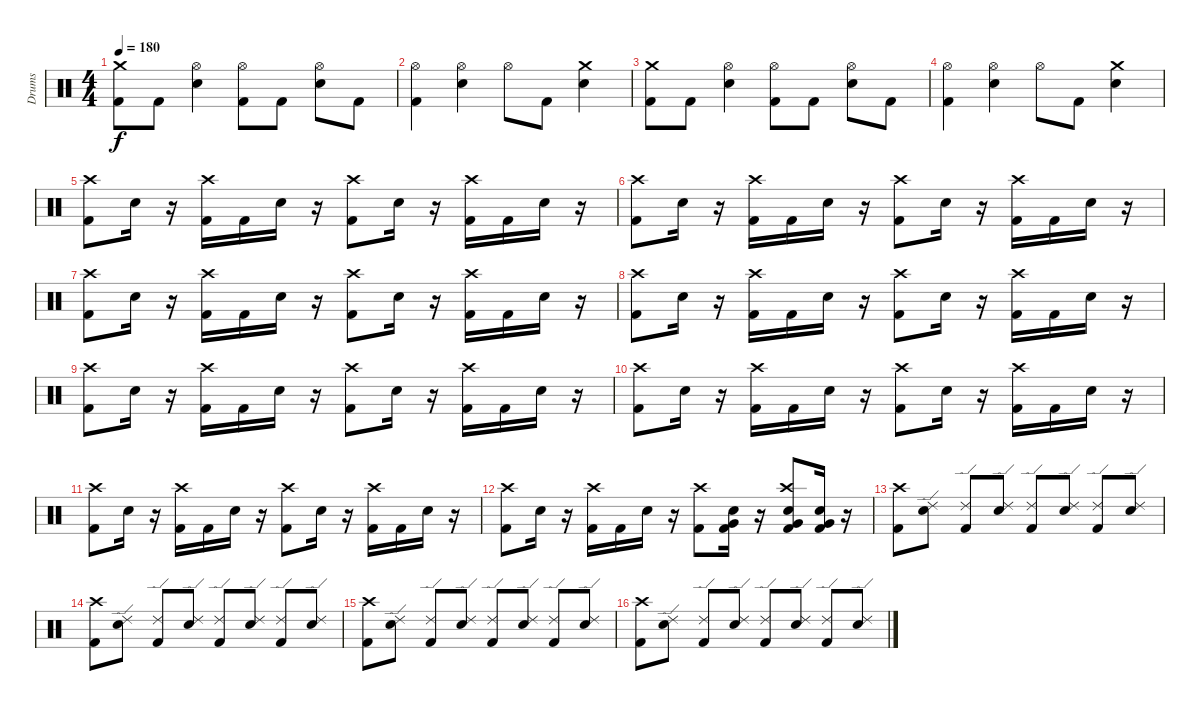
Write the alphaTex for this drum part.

\track ("Drums" "Drums") {instrument percussion}
\staff {score}
\articulation defaults
\ts (4 4)
\tempo 180
\clef neutral
\ks c
("Kick (hit) 2" "Crash medium (hit)").8{dy f} "Kick (hit) 2".8 ("Electric Snare (hit)" "Hi-Hat (open)").4 ("Kick (hit) 2" "Hi-Hat (open)").8 "Kick (hit) 2".8 ("Electric Snare (hit)" "Hi-Hat (open)").8 "Kick (hit) 2".8 |
("Kick (hit) 2" "Hi-Hat (open)").4 ("Electric Snare (hit)" "Hi-Hat (open)").4 "Hi-Hat (open)".8 "Kick (hit) 2".8 ("Electric Snare (hit)" "Crash medium (hit)").4 |
("Kick (hit) 2" "Crash medium (hit)").8 "Kick (hit) 2".8 ("Electric Snare (hit)" "Hi-Hat (open)").4 ("Kick (hit) 2" "Hi-Hat (open)").8 "Kick (hit) 2".8 ("Electric Snare (hit)" "Hi-Hat (open)").8 "Kick (hit) 2".8 |
("Kick (hit) 2" "Hi-Hat (open)").4 ("Electric Snare (hit)" "Hi-Hat (open)").4 "Hi-Hat (open)".8 "Kick (hit) 2".8 ("Electric Snare (hit)" "Crash medium (hit)").4 |
("Kick (hit) 2" "Crash high (hit)").8 "Electric Snare (hit)".16 r.16 ("Kick (hit) 2" "Crash high (hit)").16 "Kick (hit) 2".16 "Electric Snare (hit)".16 r.16 ("Kick (hit) 2" "Crash high (hit)").8 "Electric Snare (hit)".16 r.16 ("Kick (hit) 2" "Crash high (hit)").16 "Kick (hit) 2".16 "Electric Snare (hit)".16 r.16 |
("Kick (hit) 2" "Crash high (hit)").8 "Electric Snare (hit)".16 r.16 ("Kick (hit) 2" "Crash high (hit)").16 "Kick (hit) 2".16 "Electric Snare (hit)".16 r.16 ("Kick (hit) 2" "Crash high (hit)").8 "Electric Snare (hit)".16 r.16 ("Kick (hit) 2" "Crash high (hit)").16 "Kick (hit) 2".16 "Electric Snare (hit)".16 r.16 |
("Kick (hit) 2" "Crash high (hit)").8 "Electric Snare (hit)".16 r.16 ("Kick (hit) 2" "Crash high (hit)").16 "Kick (hit) 2".16 "Electric Snare (hit)".16 r.16 ("Kick (hit) 2" "Crash high (hit)").8 "Electric Snare (hit)".16 r.16 ("Kick (hit) 2" "Crash high (hit)").16 "Kick (hit) 2".16 "Electric Snare (hit)".16 r.16 |
("Kick (hit) 2" "Crash high (hit)").8 "Electric Snare (hit)".16 r.16 ("Kick (hit) 2" "Crash high (hit)").16 "Kick (hit) 2".16 "Electric Snare (hit)".16 r.16 ("Kick (hit) 2" "Crash high (hit)").8 "Electric Snare (hit)".16 r.16 ("Kick (hit) 2" "Crash high (hit)").16 "Kick (hit) 2".16 "Electric Snare (hit)".16 r.16 |
("Kick (hit) 2" "Crash high (hit)").8 "Electric Snare (hit)".16 r.16 ("Kick (hit) 2" "Crash high (hit)").16 "Kick (hit) 2".16 "Electric Snare (hit)".16 r.16 ("Kick (hit) 2" "Crash high (hit)").8 "Electric Snare (hit)".16 r.16 ("Kick (hit) 2" "Crash high (hit)").16 "Kick (hit) 2".16 "Electric Snare (hit)".16 r.16 |
("Kick (hit) 2" "Crash high (hit)").8 "Electric Snare (hit)".16 r.16 ("Kick (hit) 2" "Crash high (hit)").16 "Kick (hit) 2".16 "Electric Snare (hit)".16 r.16 ("Kick (hit) 2" "Crash high (hit)").8 "Electric Snare (hit)".16 r.16 ("Kick (hit) 2" "Crash high (hit)").16 "Kick (hit) 2".16 "Electric Snare (hit)".16 r.16 |
("Kick (hit) 2" "Crash high (hit)").8 "Electric Snare (hit)".16 r.16 ("Kick (hit) 2" "Crash high (hit)").16 "Kick (hit) 2".16 "Electric Snare (hit)".16 r.16 ("Kick (hit) 2" "Crash high (hit)").8 "Electric Snare (hit)".16 r.16 ("Kick (hit) 2" "Crash high (hit)").16 "Kick (hit) 2".16 "Electric Snare (hit)".16 r.16 |
("Kick (hit) 2" "Crash high (hit)").8 "Electric Snare (hit)".16 r.16 ("Kick (hit) 2" "Crash high (hit)").16 "Kick (hit) 2".16 "Electric Snare (hit)".16 r.16 ("Kick (hit) 2" "Crash high (hit)").8 ("Very Low Tom (hit)" "Kick (hit) 2" "Electric Snare (hit)").16 r.16 ("Very Low Tom (hit)" "Kick (hit) 2" "Electric Snare (hit)" "Crash high (hit)").8 ("Very Low Tom (hit)" "Kick (hit) 2" "Electric Snare (hit)").16 r.16 |
("Kick (hit) 2" "Crash high (hit)").8 ("Electric Snare (hit)" "Ride (edge) 2").8 ("Kick (hit) 2" "Ride (edge) 2").8 ("Electric Snare (hit)" "Ride (edge) 2").8 ("Kick (hit) 2" "Ride (edge) 2").8 ("Electric Snare (hit)" "Ride (edge) 2").8 ("Kick (hit) 2" "Ride (edge) 2").8 ("Electric Snare (hit)" "Ride (edge) 2").8 |
("Kick (hit) 2" "Crash high (hit)").8 ("Electric Snare (hit)" "Ride (edge) 2").8 ("Kick (hit) 2" "Ride (edge) 2").8 ("Electric Snare (hit)" "Ride (edge) 2").8 ("Kick (hit) 2" "Ride (edge) 2").8 ("Electric Snare (hit)" "Ride (edge) 2").8 ("Kick (hit) 2" "Ride (edge) 2").8 ("Electric Snare (hit)" "Ride (edge) 2").8 |
("Kick (hit) 2" "Crash high (hit)").8 ("Electric Snare (hit)" "Ride (edge) 2").8 ("Kick (hit) 2" "Ride (edge) 2").8 ("Electric Snare (hit)" "Ride (edge) 2").8 ("Kick (hit) 2" "Ride (edge) 2").8 ("Electric Snare (hit)" "Ride (edge) 2").8 ("Kick (hit) 2" "Ride (edge) 2").8 ("Electric Snare (hit)" "Ride (edge) 2").8 |
("Kick (hit) 2" "Crash high (hit)").8 ("Electric Snare (hit)" "Ride (edge) 2").8 ("Kick (hit) 2" "Ride (edge) 2").8 ("Electric Snare (hit)" "Ride (edge) 2").8 ("Kick (hit) 2" "Ride (edge) 2").8 ("Electric Snare (hit)" "Ride (edge) 2").8 ("Kick (hit) 2" "Ride (edge) 2").8 ("Electric Snare (hit)" "Ride (edge) 2").8
